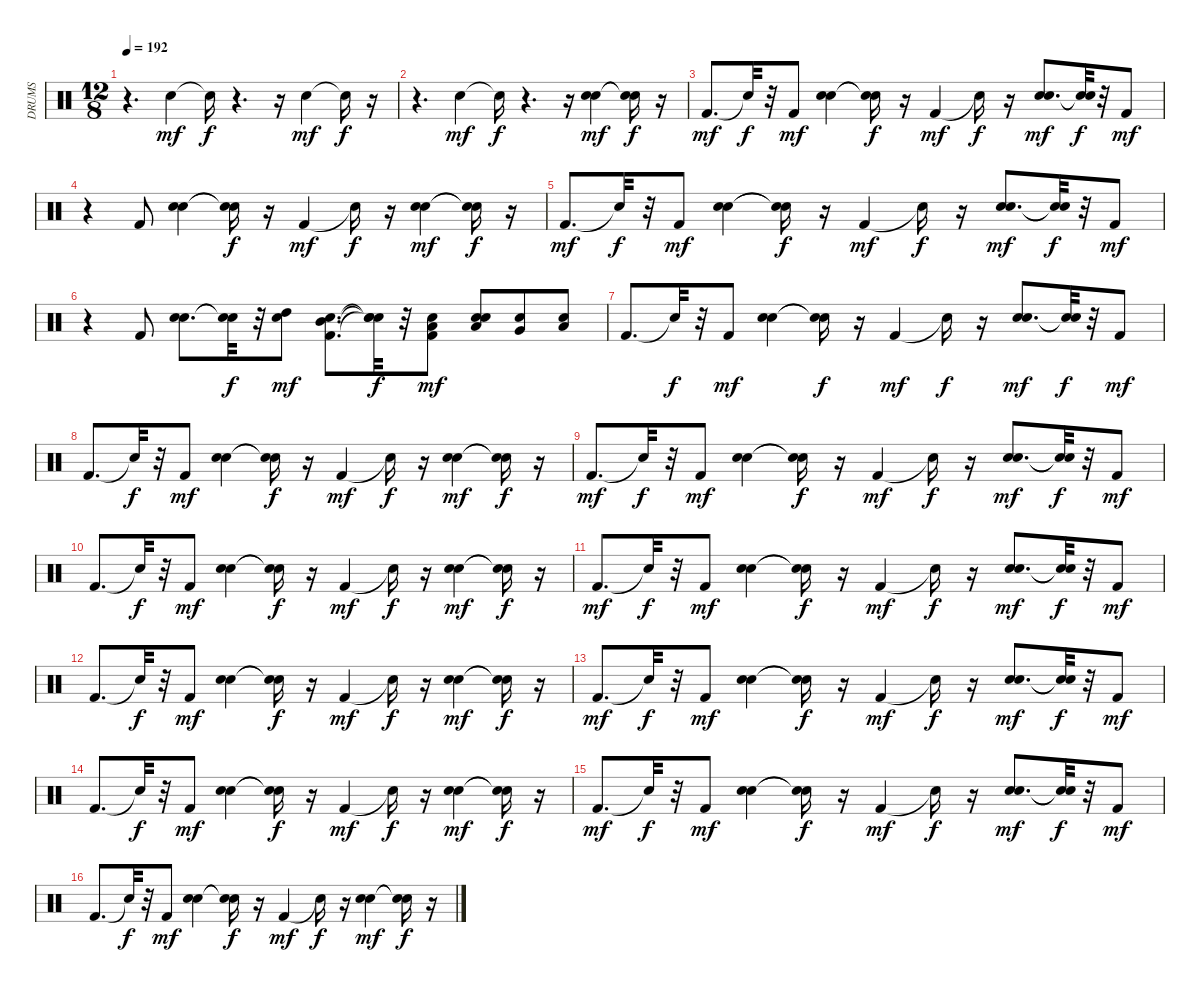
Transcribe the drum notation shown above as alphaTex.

\track ("DRUMS" "DRUMS") {instrument percussion}
\staff {score}
\articulation defaults
\ts (12 8)
\tempo 192
\clef neutral
\ks c
r.4{d dy f} "Hand Clap (hit)".4{dy mf} "Snare (hit)"{t}.16{dy f} r.4{d} r.16 "Hand Clap (hit)".4{dy mf} "Snare (hit)"{t}.16{dy f} r.16 |
r.4{d} "Hand Clap (hit)".4{dy mf} "Snare (hit)"{t}.16{dy f} r.4{d} r.16 ("Snare (hit) 2" "Hand Clap (hit)").4{dy mf} ("Snare (hit)"{t} "Snare (hit)"{t}).16{dy f} r.16 |
"Kick (hit) 2".8{d dy mf} "Snare (hit)"{t}.32{dy f} r.32 "Kick (hit) 2".8{dy mf} ("Snare (hit) 2" "Hand Clap (hit)").4 ("Snare (hit)"{t} "Snare (hit)"{t}).16{dy f} r.16 "Kick (hit) 2".4{dy mf} "Snare (hit)"{t}.16{dy f} r.16 ("Snare (hit) 2" "Hand Clap (hit)").8{d dy mf} ("Snare (hit)"{t} "Snare (hit)"{t}).32{dy f} r.32 "Kick (hit) 2".8{dy mf} |
r.4 "Kick (hit) 2".8 ("Snare (hit) 2" "Hand Clap (hit)").4 ("Snare (hit)"{t} "Snare (hit)"{t}).16{dy f} r.16 "Kick (hit) 2".4{dy mf} "Snare (hit)"{t}.16{dy f} r.16 ("Snare (hit) 2" "Hand Clap (hit)").4{dy mf} ("Snare (hit)"{t} "Snare (hit)"{t}).16{dy f} r.16 |
"Kick (hit) 2".8{d dy mf} "Snare (hit)"{t}.32{dy f} r.32 "Kick (hit) 2".8{dy mf} ("Snare (hit) 2" "Hand Clap (hit)").4 ("Snare (hit)"{t} "Snare (hit)"{t}).16{dy f} r.16 "Kick (hit) 2".4{dy mf} "Snare (hit)"{t}.16{dy f} r.16 ("Snare (hit) 2" "Hand Clap (hit)").8{d dy mf} ("Snare (hit)"{t} "Snare (hit)"{t}).32{dy f} r.32 "Kick (hit) 2".8{dy mf} |
r.4 "Kick (hit) 2".8 ("Snare (hit) 2" "Hand Clap (hit)").8{d} ("Snare (hit)"{t} "Snare (hit)"{t}).32{dy f} r.32 ("High Tom (hit)" "Snare (hit) 2").8{dy mf} ("Mid Tom (hit)" "Snare (hit) 2" "Kick (hit) 2").8{d} ("Snare (hit)"{t} "Snare (hit)"{t} "Snare (hit)"{t}).32{dy f} r.32 ("Low Tom (hit)" "Snare (hit) 2" "Kick (hit) 2").8{dy mf} ("Low Tom (hit)" "Snare (hit) 2" "Hand Clap (hit)").8 ("Very Low Tom (hit)" "Snare (hit) 2").8 ("Low Floor Tom (hit)" "Snare (hit) 2").8 |
"Kick (hit) 2".8{d} "Snare (hit)"{t}.32{dy f} r.32 "Kick (hit) 2".8{dy mf} ("Hand Clap (hit)" "Snare (hit) 2").4 ("Snare (hit)"{t} "Snare (hit)"{t}).16{dy f} r.16 "Kick (hit) 2".4{dy mf} "Snare (hit)"{t}.16{dy f} r.16 ("Hand Clap (hit)" "Snare (hit) 2").8{d dy mf} ("Snare (hit)"{t} "Snare (hit)"{t}).32{dy f} r.32 "Kick (hit) 2".8{dy mf} |
"Kick (hit) 2".8{d} "Snare (hit)"{t}.32{dy f} r.32 "Kick (hit) 2".8{dy mf} ("Hand Clap (hit)" "Snare (hit) 2").4 ("Snare (hit)"{t} "Snare (hit)"{t}).16{dy f} r.16 "Kick (hit) 2".4{dy mf} "Snare (hit)"{t}.16{dy f} r.16 ("Hand Clap (hit)" "Snare (hit) 2").4{dy mf} ("Snare (hit)"{t} "Snare (hit)"{t}).16{dy f} r.16 |
"Kick (hit) 2".8{d dy mf} "Snare (hit)"{t}.32{dy f} r.32 "Kick (hit) 2".8{dy mf} ("Hand Clap (hit)" "Snare (hit) 2").4 ("Snare (hit)"{t} "Snare (hit)"{t}).16{dy f} r.16 "Kick (hit) 2".4{dy mf} "Snare (hit)"{t}.16{dy f} r.16 ("Hand Clap (hit)" "Snare (hit) 2").8{d dy mf} ("Snare (hit)"{t} "Snare (hit)"{t}).32{dy f} r.32 "Kick (hit) 2".8{dy mf} |
"Kick (hit) 2".8{d} "Snare (hit)"{t}.32{dy f} r.32 "Kick (hit) 2".8{dy mf} ("Hand Clap (hit)" "Snare (hit) 2").4 ("Snare (hit)"{t} "Snare (hit)"{t}).16{dy f} r.16 "Kick (hit) 2".4{dy mf} "Snare (hit)"{t}.16{dy f} r.16 ("Hand Clap (hit)" "Snare (hit) 2").4{dy mf} ("Snare (hit)"{t} "Snare (hit)"{t}).16{dy f} r.16 |
"Kick (hit) 2".8{d dy mf} "Snare (hit)"{t}.32{dy f} r.32 "Kick (hit) 2".8{dy mf} ("Snare (hit) 2" "Hand Clap (hit)").4 ("Snare (hit)"{t} "Snare (hit)"{t}).16{dy f} r.16 "Kick (hit) 2".4{dy mf} "Snare (hit)"{t}.16{dy f} r.16 ("Snare (hit) 2" "Hand Clap (hit)").8{d dy mf} ("Snare (hit)"{t} "Snare (hit)"{t}).32{dy f} r.32 "Kick (hit) 2".8{dy mf} |
"Kick (hit) 2".8{d} "Snare (hit)"{t}.32{dy f} r.32 "Kick (hit) 2".8{dy mf} ("Snare (hit) 2" "Hand Clap (hit)").4 ("Snare (hit)"{t} "Snare (hit)"{t}).16{dy f} r.16 "Kick (hit) 2".4{dy mf} "Snare (hit)"{t}.16{dy f} r.16 ("Snare (hit) 2" "Hand Clap (hit)").4{dy mf} ("Snare (hit)"{t} "Snare (hit)"{t}).16{dy f} r.16 |
"Kick (hit) 2".8{d dy mf} "Snare (hit)"{t}.32{dy f} r.32 "Kick (hit) 2".8{dy mf} ("Snare (hit) 2" "Hand Clap (hit)").4 ("Snare (hit)"{t} "Snare (hit)"{t}).16{dy f} r.16 "Kick (hit) 2".4{dy mf} "Snare (hit)"{t}.16{dy f} r.16 ("Snare (hit) 2" "Hand Clap (hit)").8{d dy mf} ("Snare (hit)"{t} "Snare (hit)"{t}).32{dy f} r.32 "Kick (hit) 2".8{dy mf} |
"Kick (hit) 2".8{d} "Snare (hit)"{t}.32{dy f} r.32 "Kick (hit) 2".8{dy mf} ("Snare (hit) 2" "Hand Clap (hit)").4 ("Snare (hit)"{t} "Snare (hit)"{t}).16{dy f} r.16 "Kick (hit) 2".4{dy mf} "Snare (hit)"{t}.16{dy f} r.16 ("Snare (hit) 2" "Hand Clap (hit)").4{dy mf} ("Snare (hit)"{t} "Snare (hit)"{t}).16{dy f} r.16 |
"Kick (hit) 2".8{d dy mf} "Snare (hit)"{t}.32{dy f} r.32 "Kick (hit) 2".8{dy mf} ("Hand Clap (hit)" "Snare (hit) 2").4 ("Snare (hit)"{t} "Snare (hit)"{t}).16{dy f} r.16 "Kick (hit) 2".4{dy mf} "Snare (hit)"{t}.16{dy f} r.16 ("Hand Clap (hit)" "Snare (hit) 2").8{d dy mf} ("Snare (hit)"{t} "Snare (hit)"{t}).32{dy f} r.32 "Kick (hit) 2".8{dy mf} |
"Kick (hit) 2".8{d} "Snare (hit)"{t}.32{dy f} r.32 "Kick (hit) 2".8{dy mf} ("Hand Clap (hit)" "Snare (hit) 2").4 ("Snare (hit)"{t} "Snare (hit)"{t}).16{dy f} r.16 "Kick (hit) 2".4{dy mf} "Snare (hit)"{t}.16{dy f} r.16 ("Hand Clap (hit)" "Snare (hit) 2").4{dy mf} ("Snare (hit)"{t} "Snare (hit)"{t}).16{dy f} r.16
